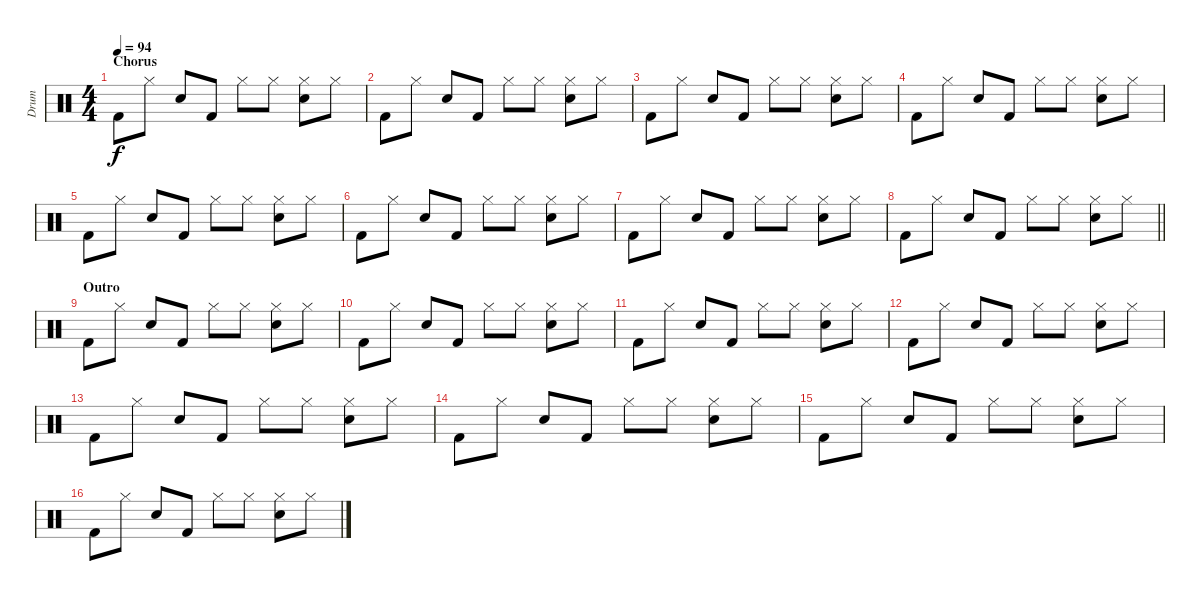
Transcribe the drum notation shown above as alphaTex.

\track ("Drum" "Drum") {instrument percussion}
\staff {score}
\articulation defaults
\ts (4 4)
\section ("" "Chorus")
\tempo 94
\clef neutral
\ks c "Kick (hit) 2".8{dy f} "Hi-Hat (closed)".8 "Electric Snare (hit)".8 "Kick (hit) 2".8 "Hi-Hat (closed)".8 "Hi-Hat (closed)".8
("Hi-Hat (closed)" "Electric Snare (hit)").8 "Hi-Hat (closed)".8 |
"Kick (hit) 2".8 "Hi-Hat (closed)".8 "Electric Snare (hit)".8 "Kick (hit) 2".8 "Hi-Hat (closed)".8 "Hi-Hat (closed)".8 ("Hi-Hat (closed)" "Electric Snare (hit)").8 "Hi-Hat (closed)".8 |
"Kick (hit) 2".8 "Hi-Hat (closed)".8 "Electric Snare (hit)".8 "Kick (hit) 2".8 "Hi-Hat (closed)".8 "Hi-Hat (closed)".8 ("Hi-Hat (closed)" "Electric Snare (hit)").8 "Hi-Hat (closed)".8 |
"Kick (hit) 2".8 "Hi-Hat (closed)".8 "Electric Snare (hit)".8 "Kick (hit) 2".8 "Hi-Hat (closed)".8 "Hi-Hat (closed)".8 ("Hi-Hat (closed)" "Electric Snare (hit)").8 "Hi-Hat (closed)".8 |
"Kick (hit) 2".8 "Hi-Hat (closed)".8 "Electric Snare (hit)".8 "Kick (hit) 2".8 "Hi-Hat (closed)".8 "Hi-Hat (closed)".8 ("Hi-Hat (closed)" "Electric Snare (hit)").8 "Hi-Hat (closed)".8 |
"Kick (hit) 2".8 "Hi-Hat (closed)".8 "Electric Snare (hit)".8 "Kick (hit) 2".8 "Hi-Hat (closed)".8 "Hi-Hat (closed)".8 ("Hi-Hat (closed)" "Electric Snare (hit)").8 "Hi-Hat (closed)".8 |
"Kick (hit) 2".8 "Hi-Hat (closed)".8 "Electric Snare (hit)".8 "Kick (hit) 2".8 "Hi-Hat (closed)".8 "Hi-Hat (closed)".8 ("Hi-Hat (closed)" "Electric Snare (hit)").8 "Hi-Hat (closed)".8 |
\barLineRight lightlight "Kick (hit) 2".8 "Hi-Hat (closed)".8 "Electric Snare (hit)".8 "Kick (hit) 2".8 "Hi-Hat (closed)".8 "Hi-Hat (closed)".8
("Hi-Hat (closed)" "Electric Snare (hit)").8 "Hi-Hat (closed)".8 |
\section ("" "Outro")
"Kick (hit) 2".8 "Hi-Hat (closed)".8 "Electric Snare (hit)".8 "Kick (hit) 2".8 "Hi-Hat (closed)".8 "Hi-Hat (closed)".8 ("Hi-Hat (closed)" "Electric Snare (hit)").8 "Hi-Hat (closed)".8 |
"Kick (hit) 2".8 "Hi-Hat (closed)".8 "Electric Snare (hit)".8 "Kick (hit) 2".8 "Hi-Hat (closed)".8 "Hi-Hat (closed)".8 ("Hi-Hat (closed)" "Electric Snare (hit)").8 "Hi-Hat (closed)".8 |
"Kick (hit) 2".8 "Hi-Hat (closed)".8 "Electric Snare (hit)".8 "Kick (hit) 2".8 "Hi-Hat (closed)".8 "Hi-Hat (closed)".8 ("Hi-Hat (closed)" "Electric Snare (hit)").8 "Hi-Hat (closed)".8 |
"Kick (hit) 2".8 "Hi-Hat (closed)".8 "Electric Snare (hit)".8 "Kick (hit) 2".8 "Hi-Hat (closed)".8 "Hi-Hat (closed)".8 ("Hi-Hat (closed)" "Electric Snare (hit)").8 "Hi-Hat (closed)".8 |
"Kick (hit) 2".8 "Hi-Hat (closed)".8 "Electric Snare (hit)".8 "Kick (hit) 2".8 "Hi-Hat (closed)".8 "Hi-Hat (closed)".8 ("Hi-Hat (closed)" "Electric Snare (hit)").8 "Hi-Hat (closed)".8 |
"Kick (hit) 2".8 "Hi-Hat (closed)".8 "Electric Snare (hit)".8 "Kick (hit) 2".8 "Hi-Hat (closed)".8 "Hi-Hat (closed)".8 ("Hi-Hat (closed)" "Electric Snare (hit)").8 "Hi-Hat (closed)".8 |
"Kick (hit) 2".8 "Hi-Hat (closed)".8 "Electric Snare (hit)".8 "Kick (hit) 2".8 "Hi-Hat (closed)".8 "Hi-Hat (closed)".8 ("Hi-Hat (closed)" "Electric Snare (hit)").8 "Hi-Hat (closed)".8 |
"Kick (hit) 2".8 "Hi-Hat (closed)".8 "Electric Snare (hit)".8 "Kick (hit) 2".8 "Hi-Hat (closed)".8 "Hi-Hat (closed)".8 ("Hi-Hat (closed)" "Electric Snare (hit)").8 "Hi-Hat (closed)".8
